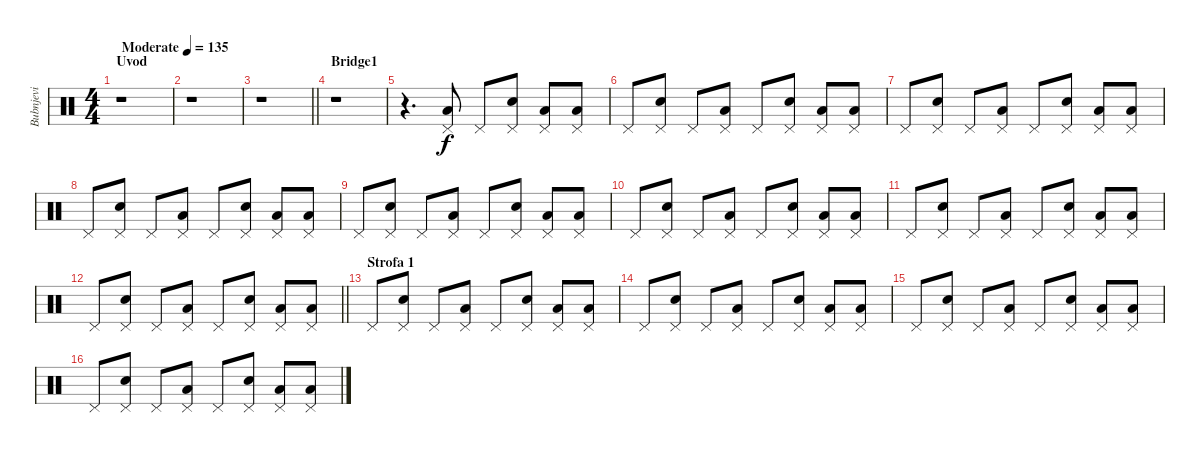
\track ("Bubnjevi" "Bubnjevi") {instrument percussion}
\staff {score}
\articulation defaults
\ts (4 4)
\section ("" "Uvod")
\tempo (135 "Moderate")
\clef neutral
\ks c
r.1{dy f} |
r.1 |
\barLineRight lightlight
r.1 |
\section ("" "Bridge1")
r.1 |
r.4{d} ("Pedal Hi-Hat (hit)" "Low Tom (hit)").8 "Pedal Hi-Hat (hit)".8 ("Pedal Hi-Hat (hit)" "Snare (hit) 2").8 ("Pedal Hi-Hat (hit)" "Low Tom (hit)").8 ("Pedal Hi-Hat (hit)" "Low Tom (hit)").8 |
"Pedal Hi-Hat (hit)".8 ("Pedal Hi-Hat (hit)" "Snare (hit) 2").8 "Pedal Hi-Hat (hit)".8 ("Pedal Hi-Hat (hit)" "Low Tom (hit)").8 "Pedal Hi-Hat (hit)".8 ("Pedal Hi-Hat (hit)" "Snare (hit) 2").8 ("Pedal Hi-Hat (hit)" "Low Tom (hit)").8 ("Pedal Hi-Hat (hit)" "Low Tom (hit)").8 |
"Pedal Hi-Hat (hit)".8 ("Pedal Hi-Hat (hit)" "Snare (hit) 2").8 "Pedal Hi-Hat (hit)".8 ("Pedal Hi-Hat (hit)" "Low Tom (hit)").8 "Pedal Hi-Hat (hit)".8 ("Pedal Hi-Hat (hit)" "Snare (hit) 2").8 ("Pedal Hi-Hat (hit)" "Low Tom (hit)").8 ("Pedal Hi-Hat (hit)" "Low Tom (hit)").8 |
"Pedal Hi-Hat (hit)".8 ("Pedal Hi-Hat (hit)" "Snare (hit) 2").8 "Pedal Hi-Hat (hit)".8 ("Pedal Hi-Hat (hit)" "Low Tom (hit)").8 "Pedal Hi-Hat (hit)".8 ("Pedal Hi-Hat (hit)" "Snare (hit) 2").8 ("Pedal Hi-Hat (hit)" "Low Tom (hit)").8 ("Pedal Hi-Hat (hit)" "Low Tom (hit)").8 |
"Pedal Hi-Hat (hit)".8 ("Pedal Hi-Hat (hit)" "Snare (hit) 2").8 "Pedal Hi-Hat (hit)".8 ("Pedal Hi-Hat (hit)" "Low Tom (hit)").8 "Pedal Hi-Hat (hit)".8 ("Pedal Hi-Hat (hit)" "Snare (hit) 2").8 ("Pedal Hi-Hat (hit)" "Low Tom (hit)").8 ("Pedal Hi-Hat (hit)" "Low Tom (hit)").8 |
"Pedal Hi-Hat (hit)".8 ("Pedal Hi-Hat (hit)" "Snare (hit) 2").8 "Pedal Hi-Hat (hit)".8 ("Pedal Hi-Hat (hit)" "Low Tom (hit)").8 "Pedal Hi-Hat (hit)".8 ("Pedal Hi-Hat (hit)" "Snare (hit) 2").8 ("Pedal Hi-Hat (hit)" "Low Tom (hit)").8 ("Pedal Hi-Hat (hit)" "Low Tom (hit)").8 |
"Pedal Hi-Hat (hit)".8 ("Pedal Hi-Hat (hit)" "Snare (hit) 2").8 "Pedal Hi-Hat (hit)".8 ("Pedal Hi-Hat (hit)" "Low Tom (hit)").8 "Pedal Hi-Hat (hit)".8 ("Pedal Hi-Hat (hit)" "Snare (hit) 2").8 ("Pedal Hi-Hat (hit)" "Low Tom (hit)").8 ("Pedal Hi-Hat (hit)" "Low Tom (hit)").8 |
\barLineRight lightlight "Pedal Hi-Hat (hit)".8
("Pedal Hi-Hat (hit)" "Snare (hit) 2").8 "Pedal Hi-Hat (hit)".8 ("Pedal Hi-Hat (hit)" "Low Tom (hit)").8 "Pedal Hi-Hat (hit)".8 ("Pedal Hi-Hat (hit)" "Snare (hit) 2").8 ("Pedal Hi-Hat (hit)" "Low Tom (hit)").8 ("Pedal Hi-Hat (hit)" "Low Tom (hit)").8 |
\section ("" "Strofa 1")
"Pedal Hi-Hat (hit)".8 ("Pedal Hi-Hat (hit)" "Snare (hit) 2").8 "Pedal Hi-Hat (hit)".8 ("Pedal Hi-Hat (hit)" "Low Tom (hit)").8 "Pedal Hi-Hat (hit)".8 ("Pedal Hi-Hat (hit)" "Snare (hit) 2").8 ("Pedal Hi-Hat (hit)" "Low Tom (hit)").8 ("Pedal Hi-Hat (hit)" "Low Tom (hit)").8 |
"Pedal Hi-Hat (hit)".8 ("Pedal Hi-Hat (hit)" "Snare (hit) 2").8 "Pedal Hi-Hat (hit)".8 ("Pedal Hi-Hat (hit)" "Low Tom (hit)").8 "Pedal Hi-Hat (hit)".8 ("Pedal Hi-Hat (hit)" "Snare (hit) 2").8 ("Pedal Hi-Hat (hit)" "Low Tom (hit)").8 ("Pedal Hi-Hat (hit)" "Low Tom (hit)").8 |
"Pedal Hi-Hat (hit)".8 ("Pedal Hi-Hat (hit)" "Snare (hit) 2").8 "Pedal Hi-Hat (hit)".8 ("Pedal Hi-Hat (hit)" "Low Tom (hit)").8 "Pedal Hi-Hat (hit)".8 ("Pedal Hi-Hat (hit)" "Snare (hit) 2").8 ("Pedal Hi-Hat (hit)" "Low Tom (hit)").8 ("Pedal Hi-Hat (hit)" "Low Tom (hit)").8 |
"Pedal Hi-Hat (hit)".8 ("Pedal Hi-Hat (hit)" "Snare (hit) 2").8 "Pedal Hi-Hat (hit)".8 ("Pedal Hi-Hat (hit)" "Low Tom (hit)").8 "Pedal Hi-Hat (hit)".8 ("Pedal Hi-Hat (hit)" "Snare (hit) 2").8 ("Pedal Hi-Hat (hit)" "Low Tom (hit)").8 ("Pedal Hi-Hat (hit)" "Low Tom (hit)").8
